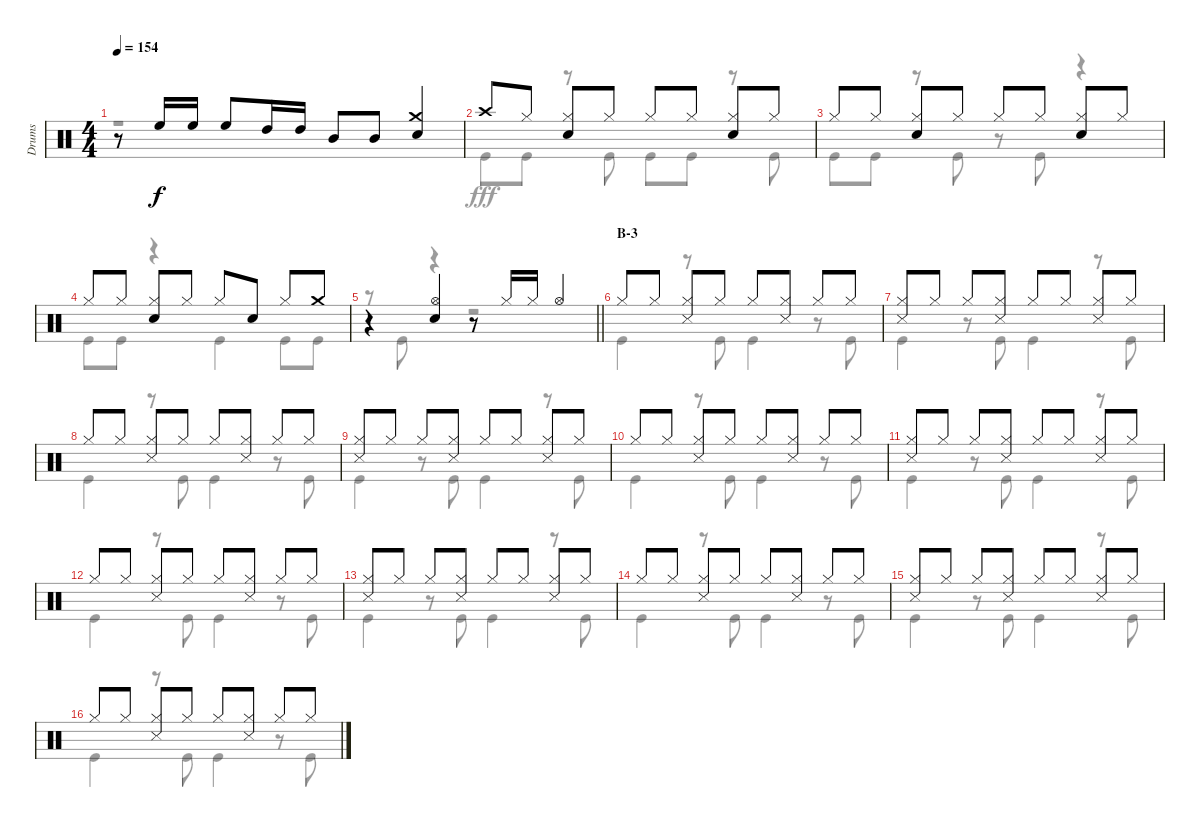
\track ("Drums" "Drums") {instrument percussion}
\staff {score}
\articulation defaults
\voice
\ts (4 4)
\tempo 154
\clef neutral
\ks c
r.8{dy f} "High Floor Tom (hit)".16 "High Floor Tom (hit)".16 "High Floor Tom (hit)".8 "High Tom (hit)".16 "High Tom (hit)".16 "Mid Tom (hit)".8 "Mid Tom (hit)".8 ("Crash medium (hit)" "Snare (hit) 2").4 |
"Crash high (hit)".8 "Hi-Hat (closed)".8 ("Hi-Hat (closed)" "Snare (hit) 2").8 "Hi-Hat (closed)".8 "Hi-Hat (closed)".8 "Hi-Hat (closed)".8 ("Hi-Hat (closed)" "Snare (hit) 2").8 "Hi-Hat (closed)".8 |
"Hi-Hat (closed)".8 "Hi-Hat (closed)".8 ("Hi-Hat (closed)" "Snare (hit) 2").8 "Hi-Hat (closed)".8 "Hi-Hat (closed)".8 "Hi-Hat (closed)".8 ("Hi-Hat (closed)" "Snare (hit) 2").8 "Hi-Hat (closed)".8 |
"Hi-Hat (closed)".8 "Hi-Hat (closed)".8 ("Hi-Hat (closed)" "Snare (hit) 2").8 "Hi-Hat (closed)".8 "Hi-Hat (closed)".8 "Snare (hit) 2".8 "Hi-Hat (closed)".8 "Crash medium (hit)".8 |
\barLineRight lightlight
r.4 ("Hi-Hat (open)" "Snare (hit) 2").4 r.8 "Hi-Hat (closed)".16 "Hi-Hat (closed)".16 "Hi-Hat (open)".4 |
\section ("" "B-3")
"Hi-Hat (closed)".8 "Hi-Hat (closed)".8 ("Hi-Hat (closed)" "Snare (side stick) 3").8 "Hi-Hat (closed)".8 "Hi-Hat (closed)".8 ("Hi-Hat (closed)" "Snare (side stick) 3").8 "Hi-Hat (closed)".8 "Hi-Hat (closed)".8 |
("Hi-Hat (closed)" "Snare (side stick) 3").8 "Hi-Hat (closed)".8 "Hi-Hat (closed)".8 ("Hi-Hat (closed)" "Snare (side stick) 3").8 "Hi-Hat (closed)".8 "Hi-Hat (closed)".8 ("Hi-Hat (closed)" "Snare (side stick) 3").8 "Hi-Hat (closed)".8 |
"Hi-Hat (closed)".8 "Hi-Hat (closed)".8 ("Hi-Hat (closed)" "Snare (side stick) 3").8 "Hi-Hat (closed)".8 "Hi-Hat (closed)".8 ("Hi-Hat (closed)" "Snare (side stick) 3").8 "Hi-Hat (closed)".8 "Hi-Hat (closed)".8 |
("Hi-Hat (closed)" "Snare (side stick) 3").8 "Hi-Hat (closed)".8 "Hi-Hat (closed)".8 ("Hi-Hat (closed)" "Snare (side stick) 3").8 "Hi-Hat (closed)".8 "Hi-Hat (closed)".8 ("Hi-Hat (closed)" "Snare (side stick) 3").8 "Hi-Hat (closed)".8 |
"Hi-Hat (closed)".8 "Hi-Hat (closed)".8 ("Hi-Hat (closed)" "Snare (side stick) 3").8 "Hi-Hat (closed)".8 "Hi-Hat (closed)".8 ("Hi-Hat (closed)" "Snare (side stick) 3").8 "Hi-Hat (closed)".8 "Hi-Hat (closed)".8 |
("Hi-Hat (closed)" "Snare (side stick) 3").8 "Hi-Hat (closed)".8 "Hi-Hat (closed)".8 ("Hi-Hat (closed)" "Snare (side stick) 3").8 "Hi-Hat (closed)".8 "Hi-Hat (closed)".8 ("Hi-Hat (closed)" "Snare (side stick) 3").8 "Hi-Hat (closed)".8 |
"Hi-Hat (closed)".8 "Hi-Hat (closed)".8 ("Hi-Hat (closed)" "Snare (side stick) 3").8 "Hi-Hat (closed)".8 "Hi-Hat (closed)".8 ("Hi-Hat (closed)" "Snare (side stick) 3").8 "Hi-Hat (closed)".8 "Hi-Hat (closed)".8 |
("Hi-Hat (closed)" "Snare (side stick) 3").8 "Hi-Hat (closed)".8 "Hi-Hat (closed)".8 ("Hi-Hat (closed)" "Snare (side stick) 3").8 "Hi-Hat (closed)".8 "Hi-Hat (closed)".8 ("Hi-Hat (closed)" "Snare (side stick) 3").8 "Hi-Hat (closed)".8 |
"Hi-Hat (closed)".8 "Hi-Hat (closed)".8 ("Hi-Hat (closed)" "Snare (side stick) 3").8 "Hi-Hat (closed)".8 "Hi-Hat (closed)".8 ("Hi-Hat (closed)" "Snare (side stick) 3").8 "Hi-Hat (closed)".8 "Hi-Hat (closed)".8 |
("Hi-Hat (closed)" "Snare (side stick) 3").8 "Hi-Hat (closed)".8 "Hi-Hat (closed)".8 ("Hi-Hat (closed)" "Snare (side stick) 3").8 "Hi-Hat (closed)".8 "Hi-Hat (closed)".8 ("Hi-Hat (closed)" "Snare (side stick) 3").8 "Hi-Hat (closed)".8 |
"Hi-Hat (closed)".8 "Hi-Hat (closed)".8 ("Hi-Hat (closed)" "Snare (side stick) 3").8 "Hi-Hat (closed)".8 "Hi-Hat (closed)".8 ("Hi-Hat (closed)" "Snare (side stick) 3").8 "Hi-Hat (closed)".8 "Hi-Hat (closed)".8
\voice
\clef neutral
\ottava regular
\simile none
\ks c
r.1{dy fff} |
"Kick (hit)".8 "Kick (hit)".8 r.8 "Kick (hit)".8 "Kick (hit)".8 "Kick (hit)".8 r.8 "Kick (hit)".8 |
"Kick (hit)".8 "Kick (hit)".8 r.8 "Kick (hit)".8 r.8 "Kick (hit)".8 r.4 |
"Kick (hit)".8 "Kick (hit)".8 r.4 "Kick (hit)".4 "Kick (hit)".8 "Kick (hit)".8 |
\barLineRight lightlight
r.8 "Kick (hit)".8 r.4 r.2 |
"Kick (hit)".4 r.8 "Kick (hit)".8 "Kick (hit)".4 r.8 "Kick (hit)".8 |
"Kick (hit)".4 r.8 "Kick (hit)".8 "Kick (hit)".4 r.8 "Kick (hit)".8 |
"Kick (hit)".4 r.8 "Kick (hit)".8 "Kick (hit)".4 r.8 "Kick (hit)".8 |
"Kick (hit)".4 r.8 "Kick (hit)".8 "Kick (hit)".4 r.8 "Kick (hit)".8 |
"Kick (hit)".4 r.8 "Kick (hit)".8 "Kick (hit)".4 r.8 "Kick (hit)".8 |
"Kick (hit)".4 r.8 "Kick (hit)".8 "Kick (hit)".4 r.8 "Kick (hit)".8 |
"Kick (hit)".4 r.8 "Kick (hit)".8 "Kick (hit)".4 r.8 "Kick (hit)".8 |
"Kick (hit)".4 r.8 "Kick (hit)".8 "Kick (hit)".4 r.8 "Kick (hit)".8 |
"Kick (hit)".4 r.8 "Kick (hit)".8 "Kick (hit)".4 r.8 "Kick (hit)".8 |
"Kick (hit)".4 r.8 "Kick (hit)".8 "Kick (hit)".4 r.8 "Kick (hit)".8 |
"Kick (hit)".4 r.8 "Kick (hit)".8 "Kick (hit)".4 r.8 "Kick (hit)".8
